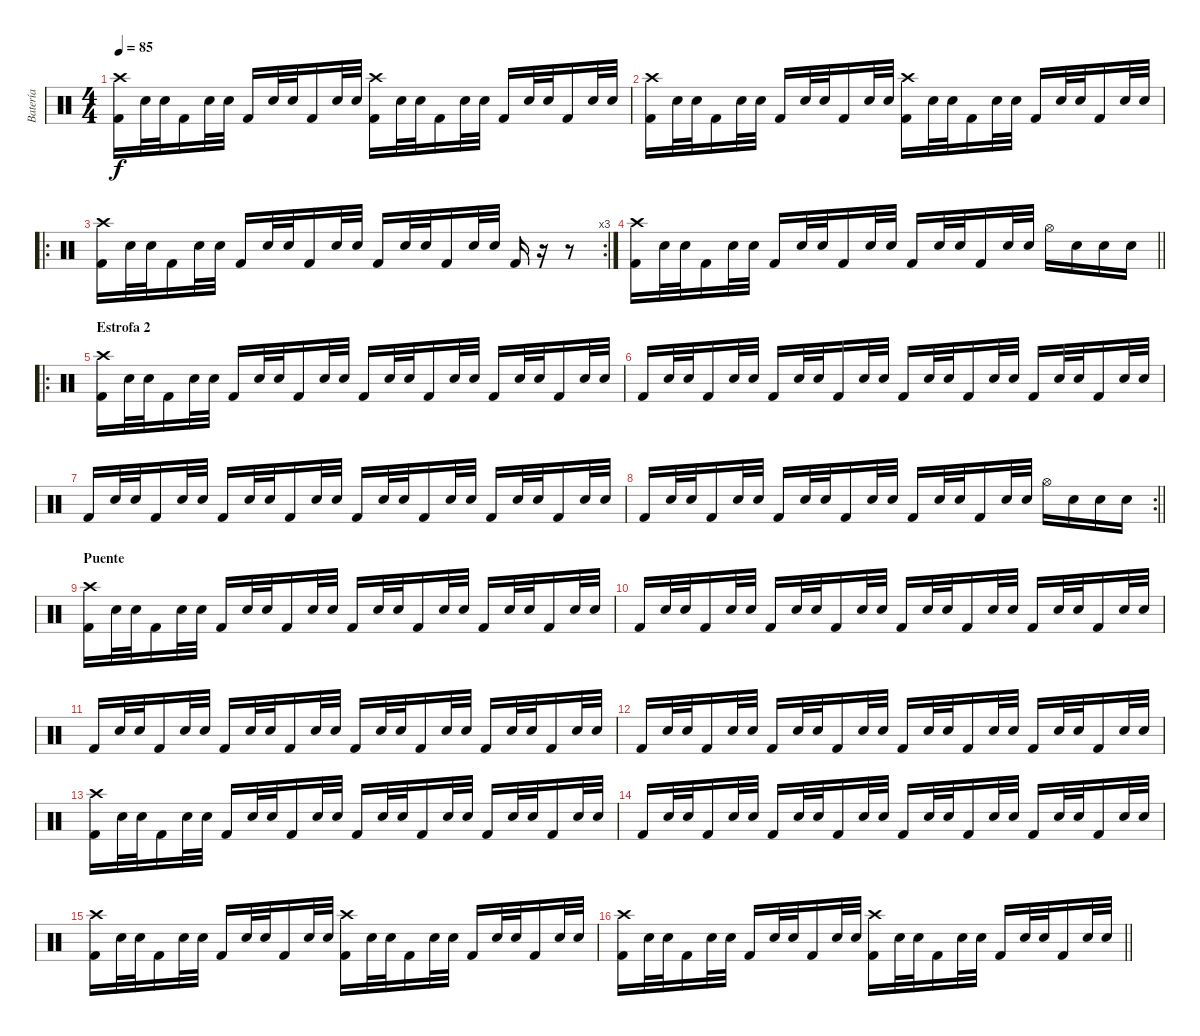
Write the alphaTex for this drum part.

\track ("Batería" "Batería") {instrument percussion}
\staff {score}
\articulation defaults
\ts (4 4)
\tempo 85
\clef neutral
\ks c
("Crash high (hit)" "Kick (hit) 2").16{dy f} "Snare (hit) 2".32 "Electric Snare (hit)".32 "Kick (hit) 2".16 "Snare (hit) 2".32 "Electric Snare (hit)".32 "Kick (hit) 2".16 "Snare (hit) 2".32 "Electric Snare (hit)".32 "Kick (hit) 2".16 "Snare (hit) 2".32 "Electric Snare (hit)".32 ("Crash high (hit)" "Kick (hit) 2").16 "Snare (hit) 2".32 "Electric Snare (hit)".32 "Kick (hit) 2".16 "Snare (hit) 2".32 "Electric Snare (hit)".32 "Kick (hit) 2".16 "Snare (hit) 2".32 "Electric Snare (hit)".32 "Kick (hit) 2".16 "Snare (hit) 2".32 "Electric Snare (hit)".32 |
("Crash high (hit)" "Kick (hit) 2").16 "Snare (hit) 2".32 "Electric Snare (hit)".32 "Kick (hit) 2".16 "Snare (hit) 2".32 "Electric Snare (hit)".32 "Kick (hit) 2".16 "Snare (hit) 2".32 "Electric Snare (hit)".32 "Kick (hit) 2".16 "Snare (hit) 2".32 "Electric Snare (hit)".32 ("Crash high (hit)" "Kick (hit) 2").16 "Snare (hit) 2".32 "Electric Snare (hit)".32 "Kick (hit) 2".16 "Snare (hit) 2".32 "Electric Snare (hit)".32 "Kick (hit) 2".16 "Snare (hit) 2".32 "Electric Snare (hit)".32 "Kick (hit) 2".16 "Snare (hit) 2".32 "Electric Snare (hit)".32 |
\ro
\rc 3
("Crash high (hit)" "Kick (hit) 2").16 "Snare (hit) 2".32 "Electric Snare (hit)".32 "Kick (hit) 2".16 "Snare (hit) 2".32 "Electric Snare (hit)".32 "Kick (hit) 2".16 "Snare (hit) 2".32 "Electric Snare (hit)".32 "Kick (hit) 2".16 "Snare (hit) 2".32 "Electric Snare (hit)".32 "Kick (hit) 2".16 "Snare (hit) 2".32 "Electric Snare (hit)".32 "Kick (hit) 2".16 "Snare (hit) 2".32 "Electric Snare (hit)".32 "Kick (hit) 2".16 r.16 r.8 |
\barLineRight lightlight
("Crash high (hit)" "Kick (hit) 2").16 "Snare (hit) 2".32 "Electric Snare (hit)".32 "Kick (hit) 2".16 "Snare (hit) 2".32 "Electric Snare (hit)".32 "Kick (hit) 2".16 "Snare (hit) 2".32 "Electric Snare (hit)".32 "Kick (hit) 2".16 "Snare (hit) 2".32 "Electric Snare (hit)".32 "Kick (hit) 2".16 "Snare (hit) 2".32 "Electric Snare (hit)".32 "Kick (hit) 2".16 "Snare (hit) 2".32 "Electric Snare (hit)".32 "Hi-Hat (open)".16 "Snare (hit) 2".16 "Snare (hit) 2".16 "Snare (hit) 2".16 |
\ro
\section ("" "Estrofa 2")
("Crash high (hit)" "Kick (hit) 2").16 "Snare (hit) 2".32 "Electric Snare (hit)".32 "Kick (hit) 2".16 "Snare (hit) 2".32 "Electric Snare (hit)".32 "Kick (hit) 2".16 "Snare (hit) 2".32 "Electric Snare (hit)".32 "Kick (hit) 2".16 "Snare (hit) 2".32 "Electric Snare (hit)".32 "Kick (hit) 2".16 "Snare (hit) 2".32 "Electric Snare (hit)".32 "Kick (hit) 2".16 "Snare (hit) 2".32 "Electric Snare (hit)".32 "Kick (hit) 2".16 "Snare (hit) 2".32 "Electric Snare (hit)".32 "Kick (hit) 2".16 "Snare (hit) 2".32 "Electric Snare (hit)".32 |
"Kick (hit) 2".16 "Snare (hit) 2".32 "Electric Snare (hit)".32 "Kick (hit) 2".16 "Snare (hit) 2".32 "Electric Snare (hit)".32 "Kick (hit) 2".16 "Snare (hit) 2".32 "Electric Snare (hit)".32 "Kick (hit) 2".16 "Snare (hit) 2".32 "Electric Snare (hit)".32 "Kick (hit) 2".16 "Snare (hit) 2".32 "Electric Snare (hit)".32 "Kick (hit) 2".16 "Snare (hit) 2".32 "Electric Snare (hit)".32 "Kick (hit) 2".16 "Snare (hit) 2".32 "Electric Snare (hit)".32 "Kick (hit) 2".16 "Snare (hit) 2".32 "Electric Snare (hit)".32 |
"Kick (hit) 2".16 "Snare (hit) 2".32 "Electric Snare (hit)".32 "Kick (hit) 2".16 "Snare (hit) 2".32 "Electric Snare (hit)".32 "Kick (hit) 2".16 "Snare (hit) 2".32 "Electric Snare (hit)".32 "Kick (hit) 2".16 "Snare (hit) 2".32 "Electric Snare (hit)".32 "Kick (hit) 2".16 "Snare (hit) 2".32 "Electric Snare (hit)".32 "Kick (hit) 2".16 "Snare (hit) 2".32 "Electric Snare (hit)".32 "Kick (hit) 2".16 "Snare (hit) 2".32 "Electric Snare (hit)".32 "Kick (hit) 2".16 "Snare (hit) 2".32 "Electric Snare (hit)".32 |
\rc 2
\barLineRight lightlight "Kick (hit) 2".16 "Snare (hit) 2".32 "Electric Snare (hit)".32 "Kick (hit) 2".16 "Snare (hit) 2".32 "Electric Snare (hit)".32 "Kick (hit) 2".16 "Snare (hit) 2".32 "Electric Snare (hit)".32 "Kick (hit) 2".16 "Snare (hit) 2".32 "Electric Snare (hit)".32 "Kick (hit) 2".16 "Snare (hit) 2".32 "Electric Snare (hit)".32 "Kick (hit) 2".16 "Snare (hit) 2".32 "Electric Snare (hit)".32 "Hi-Hat (open)".16 "Snare (hit) 2".16 "Snare (hit) 2".16 "Snare (hit) 2".16
|
\section ("" "Puente")
("Crash high (hit)" "Kick (hit) 2").16 "Snare (hit) 2".32 "Electric Snare (hit)".32 "Kick (hit) 2".16 "Snare (hit) 2".32 "Electric Snare (hit)".32 "Kick (hit) 2".16 "Snare (hit) 2".32 "Electric Snare (hit)".32 "Kick (hit) 2".16 "Snare (hit) 2".32 "Electric Snare (hit)".32 "Kick (hit) 2".16 "Snare (hit) 2".32 "Electric Snare (hit)".32 "Kick (hit) 2".16 "Snare (hit) 2".32 "Electric Snare (hit)".32 "Kick (hit) 2".16 "Snare (hit) 2".32 "Electric Snare (hit)".32 "Kick (hit) 2".16 "Snare (hit) 2".32 "Electric Snare (hit)".32 |
"Kick (hit) 2".16 "Snare (hit) 2".32 "Electric Snare (hit)".32 "Kick (hit) 2".16 "Snare (hit) 2".32 "Electric Snare (hit)".32 "Kick (hit) 2".16 "Snare (hit) 2".32 "Electric Snare (hit)".32 "Kick (hit) 2".16 "Snare (hit) 2".32 "Electric Snare (hit)".32 "Kick (hit) 2".16 "Snare (hit) 2".32 "Electric Snare (hit)".32 "Kick (hit) 2".16 "Snare (hit) 2".32 "Electric Snare (hit)".32 "Kick (hit) 2".16 "Snare (hit) 2".32 "Electric Snare (hit)".32 "Kick (hit) 2".16 "Snare (hit) 2".32 "Electric Snare (hit)".32 |
"Kick (hit) 2".16 "Snare (hit) 2".32 "Electric Snare (hit)".32 "Kick (hit) 2".16 "Snare (hit) 2".32 "Electric Snare (hit)".32 "Kick (hit) 2".16 "Snare (hit) 2".32 "Electric Snare (hit)".32 "Kick (hit) 2".16 "Snare (hit) 2".32 "Electric Snare (hit)".32 "Kick (hit) 2".16 "Snare (hit) 2".32 "Electric Snare (hit)".32 "Kick (hit) 2".16 "Snare (hit) 2".32 "Electric Snare (hit)".32 "Kick (hit) 2".16 "Snare (hit) 2".32 "Electric Snare (hit)".32 "Kick (hit) 2".16 "Snare (hit) 2".32 "Electric Snare (hit)".32 |
"Kick (hit) 2".16 "Snare (hit) 2".32 "Electric Snare (hit)".32 "Kick (hit) 2".16 "Snare (hit) 2".32 "Electric Snare (hit)".32 "Kick (hit) 2".16 "Snare (hit) 2".32 "Electric Snare (hit)".32 "Kick (hit) 2".16 "Snare (hit) 2".32 "Electric Snare (hit)".32 "Kick (hit) 2".16 "Snare (hit) 2".32 "Electric Snare (hit)".32 "Kick (hit) 2".16 "Snare (hit) 2".32 "Electric Snare (hit)".32 "Kick (hit) 2".16 "Snare (hit) 2".32 "Electric Snare (hit)".32 "Kick (hit) 2".16 "Snare (hit) 2".32 "Electric Snare (hit)".32 |
("Crash high (hit)" "Kick (hit) 2").16 "Snare (hit) 2".32 "Electric Snare (hit)".32 "Kick (hit) 2".16 "Snare (hit) 2".32 "Electric Snare (hit)".32 "Kick (hit) 2".16 "Snare (hit) 2".32 "Electric Snare (hit)".32 "Kick (hit) 2".16 "Snare (hit) 2".32 "Electric Snare (hit)".32 "Kick (hit) 2".16 "Snare (hit) 2".32 "Electric Snare (hit)".32 "Kick (hit) 2".16 "Snare (hit) 2".32 "Electric Snare (hit)".32 "Kick (hit) 2".16 "Snare (hit) 2".32 "Electric Snare (hit)".32 "Kick (hit) 2".16 "Snare (hit) 2".32 "Electric Snare (hit)".32 |
"Kick (hit) 2".16 "Snare (hit) 2".32 "Electric Snare (hit)".32 "Kick (hit) 2".16 "Snare (hit) 2".32 "Electric Snare (hit)".32 "Kick (hit) 2".16 "Snare (hit) 2".32 "Electric Snare (hit)".32 "Kick (hit) 2".16 "Snare (hit) 2".32 "Electric Snare (hit)".32 "Kick (hit) 2".16 "Snare (hit) 2".32 "Electric Snare (hit)".32 "Kick (hit) 2".16 "Snare (hit) 2".32 "Electric Snare (hit)".32 "Kick (hit) 2".16 "Snare (hit) 2".32 "Electric Snare (hit)".32 "Kick (hit) 2".16 "Snare (hit) 2".32 "Electric Snare (hit)".32 |
("Crash high (hit)" "Kick (hit) 2").16 "Snare (hit) 2".32 "Electric Snare (hit)".32 "Kick (hit) 2".16 "Snare (hit) 2".32 "Electric Snare (hit)".32 "Kick (hit) 2".16 "Snare (hit) 2".32 "Electric Snare (hit)".32 "Kick (hit) 2".16 "Snare (hit) 2".32 "Electric Snare (hit)".32 ("Crash high (hit)" "Kick (hit) 2").16 "Snare (hit) 2".32 "Electric Snare (hit)".32 "Kick (hit) 2".16 "Snare (hit) 2".32 "Electric Snare (hit)".32 "Kick (hit) 2".16 "Snare (hit) 2".32 "Electric Snare (hit)".32 "Kick (hit) 2".16 "Snare (hit) 2".32 "Electric Snare (hit)".32 |
\barLineRight lightlight
("Crash high (hit)" "Kick (hit) 2").16 "Snare (hit) 2".32 "Electric Snare (hit)".32 "Kick (hit) 2".16 "Snare (hit) 2".32 "Electric Snare (hit)".32 "Kick (hit) 2".16 "Snare (hit) 2".32 "Electric Snare (hit)".32 "Kick (hit) 2".16 "Snare (hit) 2".32 "Electric Snare (hit)".32 ("Crash high (hit)" "Kick (hit) 2").16 "Snare (hit) 2".32 "Electric Snare (hit)".32 "Kick (hit) 2".16 "Snare (hit) 2".32 "Electric Snare (hit)".32 "Kick (hit) 2".16 "Snare (hit) 2".32 "Electric Snare (hit)".32 "Kick (hit) 2".16 "Snare (hit) 2".32 "Electric Snare (hit)".32
